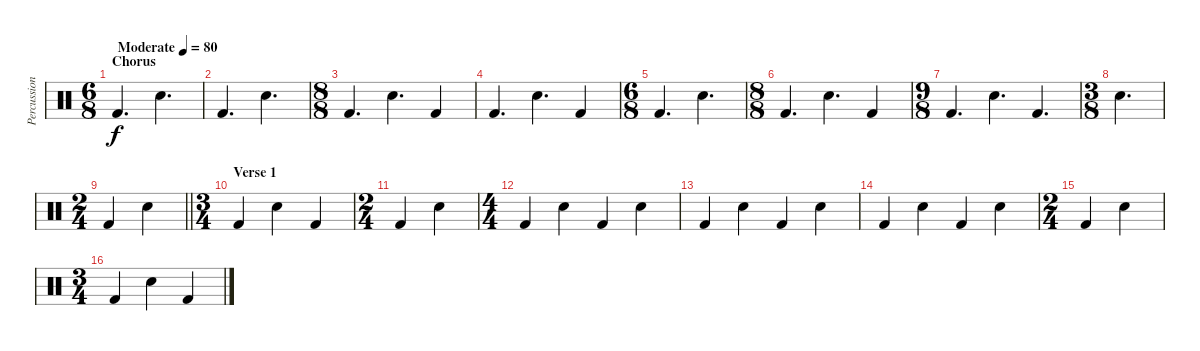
\track ("Percussion" "Percussion") {instrument percussion}
\staff {score}
\articulation defaults
\ts (6 8)
\section ("" "Chorus")
\tempo (80 "Moderate")
\clef neutral
\ks c "Kick (hit) 2".4{d dy f} "Snare (hit) 2".4{d}
|
"Kick (hit) 2".4{d} "Snare (hit) 2".4{d} |
\ts (8 8)
"Kick (hit) 2".4{d} "Snare (hit) 2".4{d} "Kick (hit) 2".4 |
"Kick (hit) 2".4{d} "Snare (hit) 2".4{d} "Kick (hit) 2".4 |
\ts (6 8)
"Kick (hit) 2".4{d} "Snare (hit) 2".4{d} |
\ts (8 8)
"Kick (hit) 2".4{d} "Snare (hit) 2".4{d} "Kick (hit) 2".4 |
\ts (9 8)
"Kick (hit) 2".4{d} "Snare (hit) 2".4{d} "Kick (hit) 2".4{d} |
\ts (3 8)
"Snare (hit) 2".4{d} |
\ts (2 4)
\barLineRight lightlight "Kick (hit) 2".4 "Snare (hit) 2".4
|
\ts (3 4)
\section ("" "Verse 1")
"Kick (hit) 2".4 "Snare (hit) 2".4 "Kick (hit) 2".4 |
\ts (2 4)
"Kick (hit) 2".4 "Snare (hit) 2".4 |
\ts (4 4)
"Kick (hit) 2".4 "Snare (hit) 2".4 "Kick (hit) 2".4 "Snare (hit) 2".4 |
"Kick (hit) 2".4 "Snare (hit) 2".4 "Kick (hit) 2".4 "Snare (hit) 2".4 |
"Kick (hit) 2".4 "Snare (hit) 2".4 "Kick (hit) 2".4 "Snare (hit) 2".4 |
\ts (2 4)
"Kick (hit) 2".4 "Snare (hit) 2".4 |
\ts (3 4)
"Kick (hit) 2".4 "Snare (hit) 2".4 "Kick (hit) 2".4
